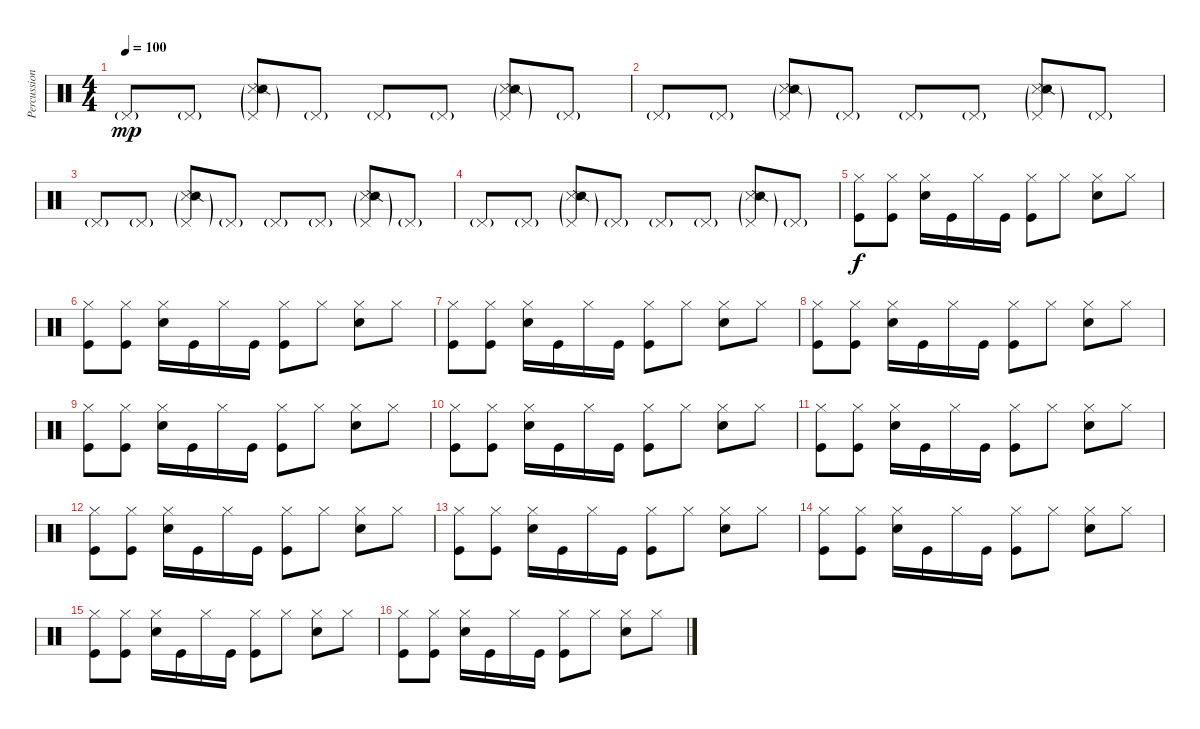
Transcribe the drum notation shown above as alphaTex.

\track ("Percussion" "Percussion") {instrument percussion}
\staff {score}
\articulation defaults
\ts (4 4)
\tempo 100
\clef neutral
\ks c "Pedal Hi-Hat (hit)"{g}.8{dy mp} "Pedal Hi-Hat (hit)"{g}.8
("Metronome (hit)"{g} "Snare (side stick) 2"{g} "Pedal Hi-Hat (hit)"{g}).8 "Pedal Hi-Hat (hit)"{g}.8 "Pedal Hi-Hat (hit)"{g}.8 "Pedal Hi-Hat (hit)"{g}.8 ("Metronome (hit)"{g} "Snare (side stick) 2"{g} "Pedal Hi-Hat (hit)"{g}).8 "Pedal Hi-Hat (hit)"{g}.8 |
"Pedal Hi-Hat (hit)"{g}.8 "Pedal Hi-Hat (hit)"{g}.8 ("Metronome (hit)"{g} "Snare (side stick) 2"{g} "Pedal Hi-Hat (hit)"{g}).8 "Pedal Hi-Hat (hit)"{g}.8 "Pedal Hi-Hat (hit)"{g}.8 "Pedal Hi-Hat (hit)"{g}.8 ("Metronome (hit)"{g} "Snare (side stick) 2"{g} "Pedal Hi-Hat (hit)"{g}).8 "Pedal Hi-Hat (hit)"{g}.8 |
"Pedal Hi-Hat (hit)"{g}.8 "Pedal Hi-Hat (hit)"{g}.8 ("Metronome (hit)"{g} "Snare (side stick) 2"{g} "Pedal Hi-Hat (hit)"{g}).8 "Pedal Hi-Hat (hit)"{g}.8 "Pedal Hi-Hat (hit)"{g}.8 "Pedal Hi-Hat (hit)"{g}.8 ("Metronome (hit)"{g} "Snare (side stick) 2"{g} "Pedal Hi-Hat (hit)"{g}).8 "Pedal Hi-Hat (hit)"{g}.8 |
"Pedal Hi-Hat (hit)"{g}.8 "Pedal Hi-Hat (hit)"{g}.8 ("Metronome (hit)"{g} "Snare (side stick) 2"{g} "Pedal Hi-Hat (hit)"{g}).8 "Pedal Hi-Hat (hit)"{g}.8 "Pedal Hi-Hat (hit)"{g}.8 "Pedal Hi-Hat (hit)"{g}.8 ("Metronome (hit)"{g} "Snare (side stick) 2"{g} "Pedal Hi-Hat (hit)"{g}).8 "Pedal Hi-Hat (hit)"{g}.8 |
("Kick (hit)" "Hi-Hat (closed)").8{dy f} ("Kick (hit)" "Hi-Hat (closed)").8 ("Electric Snare (hit)" "Hi-Hat (closed)").16 "Kick (hit)".16 "Hi-Hat (closed)".16 "Kick (hit)".16 ("Kick (hit)" "Hi-Hat (closed)").8 "Hi-Hat (closed)".8 ("Electric Snare (hit)" "Hi-Hat (closed)").8 "Hi-Hat (closed)".8 |
("Kick (hit)" "Hi-Hat (closed)").8 ("Kick (hit)" "Hi-Hat (closed)").8 ("Electric Snare (hit)" "Hi-Hat (closed)").16 "Kick (hit)".16 "Hi-Hat (closed)".16 "Kick (hit)".16 ("Kick (hit)" "Hi-Hat (closed)").8 "Hi-Hat (closed)".8 ("Electric Snare (hit)" "Hi-Hat (closed)").8 "Hi-Hat (closed)".8 |
("Kick (hit)" "Hi-Hat (closed)").8 ("Kick (hit)" "Hi-Hat (closed)").8 ("Electric Snare (hit)" "Hi-Hat (closed)").16 "Kick (hit)".16 "Hi-Hat (closed)".16 "Kick (hit)".16 ("Kick (hit)" "Hi-Hat (closed)").8 "Hi-Hat (closed)".8 ("Electric Snare (hit)" "Hi-Hat (closed)").8 "Hi-Hat (closed)".8 |
("Kick (hit)" "Hi-Hat (closed)").8 ("Kick (hit)" "Hi-Hat (closed)").8 ("Electric Snare (hit)" "Hi-Hat (closed)").16 "Kick (hit)".16 "Hi-Hat (closed)".16 "Kick (hit)".16 ("Kick (hit)" "Hi-Hat (closed)").8 "Hi-Hat (closed)".8 ("Electric Snare (hit)" "Hi-Hat (closed)").8 "Hi-Hat (closed)".8 |
("Kick (hit)" "Hi-Hat (closed)").8 ("Kick (hit)" "Hi-Hat (closed)").8 ("Electric Snare (hit)" "Hi-Hat (closed)").16 "Kick (hit)".16 "Hi-Hat (closed)".16 "Kick (hit)".16 ("Kick (hit)" "Hi-Hat (closed)").8 "Hi-Hat (closed)".8 ("Electric Snare (hit)" "Hi-Hat (closed)").8 "Hi-Hat (closed)".8 |
("Kick (hit)" "Hi-Hat (closed)").8 ("Kick (hit)" "Hi-Hat (closed)").8 ("Electric Snare (hit)" "Hi-Hat (closed)").16 "Kick (hit)".16 "Hi-Hat (closed)".16 "Kick (hit)".16 ("Kick (hit)" "Hi-Hat (closed)").8 "Hi-Hat (closed)".8 ("Electric Snare (hit)" "Hi-Hat (closed)").8 "Hi-Hat (closed)".8 |
("Kick (hit)" "Hi-Hat (closed)").8 ("Kick (hit)" "Hi-Hat (closed)").8 ("Electric Snare (hit)" "Hi-Hat (closed)").16 "Kick (hit)".16 "Hi-Hat (closed)".16 "Kick (hit)".16 ("Kick (hit)" "Hi-Hat (closed)").8 "Hi-Hat (closed)".8 ("Electric Snare (hit)" "Hi-Hat (closed)").8 "Hi-Hat (closed)".8 |
("Kick (hit)" "Hi-Hat (closed)").8 ("Kick (hit)" "Hi-Hat (closed)").8 ("Electric Snare (hit)" "Hi-Hat (closed)").16 "Kick (hit)".16 "Hi-Hat (closed)".16 "Kick (hit)".16 ("Kick (hit)" "Hi-Hat (closed)").8 "Hi-Hat (closed)".8 ("Electric Snare (hit)" "Hi-Hat (closed)").8 "Hi-Hat (closed)".8 |
("Kick (hit)" "Hi-Hat (closed)").8 ("Kick (hit)" "Hi-Hat (closed)").8 ("Electric Snare (hit)" "Hi-Hat (closed)").16 "Kick (hit)".16 "Hi-Hat (closed)".16 "Kick (hit)".16 ("Kick (hit)" "Hi-Hat (closed)").8 "Hi-Hat (closed)".8 ("Electric Snare (hit)" "Hi-Hat (closed)").8 "Hi-Hat (closed)".8 |
("Kick (hit)" "Hi-Hat (closed)").8 ("Kick (hit)" "Hi-Hat (closed)").8 ("Electric Snare (hit)" "Hi-Hat (closed)").16 "Kick (hit)".16 "Hi-Hat (closed)".16 "Kick (hit)".16 ("Kick (hit)" "Hi-Hat (closed)").8 "Hi-Hat (closed)".8 ("Electric Snare (hit)" "Hi-Hat (closed)").8 "Hi-Hat (closed)".8 |
("Kick (hit)" "Hi-Hat (closed)").8 ("Kick (hit)" "Hi-Hat (closed)").8 ("Electric Snare (hit)" "Hi-Hat (closed)").16 "Kick (hit)".16 "Hi-Hat (closed)".16 "Kick (hit)".16 ("Kick (hit)" "Hi-Hat (closed)").8 "Hi-Hat (closed)".8 ("Electric Snare (hit)" "Hi-Hat (closed)").8 "Hi-Hat (closed)".8 |
("Kick (hit)" "Hi-Hat (closed)").8 ("Kick (hit)" "Hi-Hat (closed)").8 ("Electric Snare (hit)" "Hi-Hat (closed)").16 "Kick (hit)".16 "Hi-Hat (closed)".16 "Kick (hit)".16 ("Kick (hit)" "Hi-Hat (closed)").8 "Hi-Hat (closed)".8 ("Electric Snare (hit)" "Hi-Hat (closed)").8 "Hi-Hat (closed)".8
